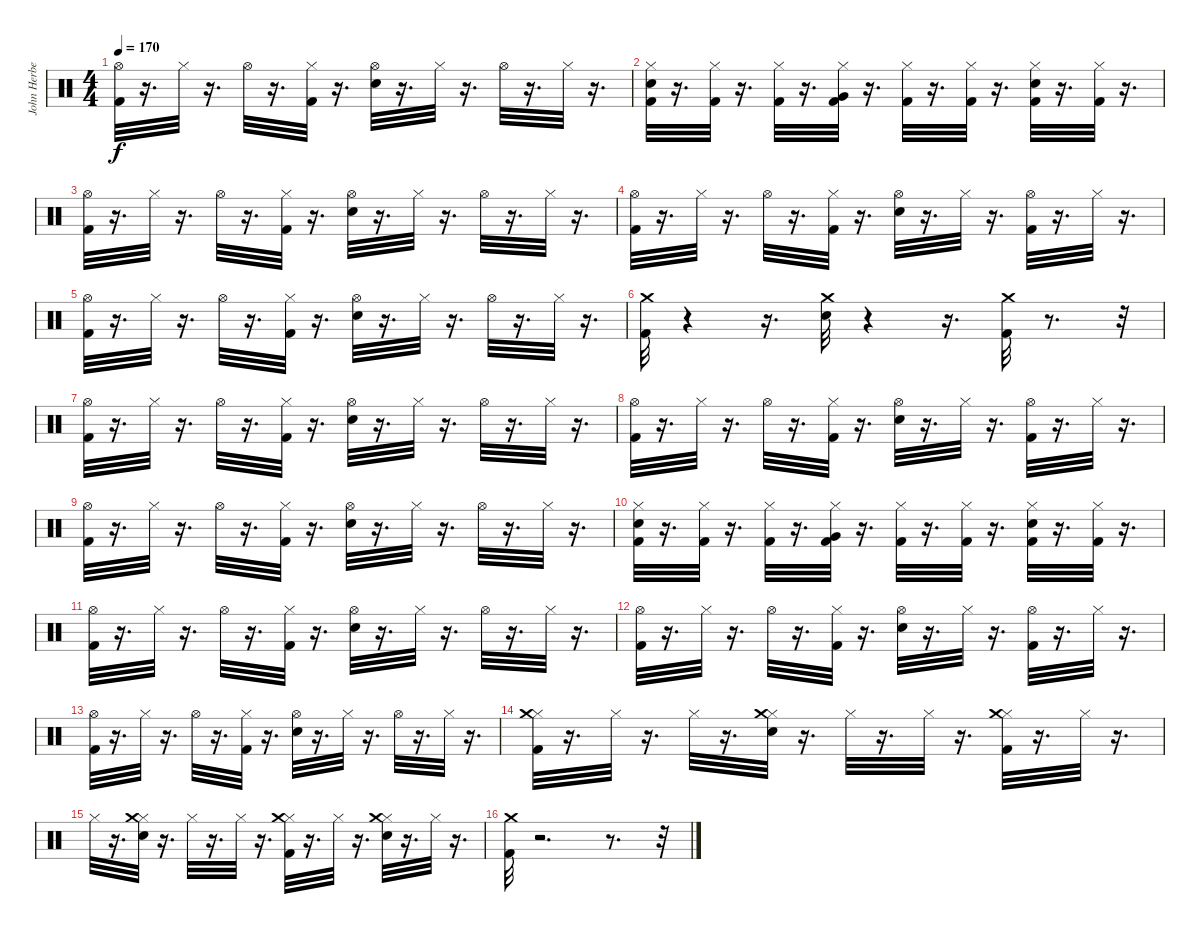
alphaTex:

\track ("John Herbert" "John Herbe") {instrument percussion}
\staff {score}
\articulation defaults
\ts (4 4)
\tempo 170
\clef neutral
\ks c
("Kick (hit) 2" "Hi-Hat (open)").32{dy f} r.16{d} "Hi-Hat (closed)".32 r.16{d} "Hi-Hat (open)".32 r.16{d} ("Kick (hit) 2" "Hi-Hat (closed)").32 r.16{d} ("Snare (hit) 2" "Hi-Hat (open)").32 r.16{d} "Hi-Hat (closed)".32 r.16{d} "Hi-Hat (open)".32 r.16{d} "Hi-Hat (closed)".32 r.16{d} |
("Snare (hit) 2" "Hi-Hat (closed)" "Kick (hit) 2").32 r.16{d} ("Hi-Hat (closed)" "Kick (hit) 2").32 r.16{d} ("Hi-Hat (closed)" "Kick (hit) 2").32 r.16{d} ("Very Low Tom (hit)" "Hi-Hat (closed)" "Kick (hit) 2").32 r.16{d} ("Hi-Hat (closed)" "Kick (hit) 2").32 r.16{d} ("Hi-Hat (closed)" "Kick (hit) 2").32 r.16{d} ("Snare (hit) 2" "Hi-Hat (closed)" "Kick (hit) 2").32 r.16{d} ("Hi-Hat (closed)" "Kick (hit) 2").32 r.16{d} |
("Kick (hit) 2" "Hi-Hat (open)").32 r.16{d} "Hi-Hat (closed)".32 r.16{d} "Hi-Hat (open)".32 r.16{d} ("Kick (hit) 2" "Hi-Hat (closed)").32 r.16{d} ("Snare (hit) 2" "Hi-Hat (open)").32 r.16{d} "Hi-Hat (closed)".32 r.16{d} "Hi-Hat (open)".32 r.16{d} "Hi-Hat (closed)".32 r.16{d} |
("Hi-Hat (open)" "Kick (hit) 2").32 r.16{d} "Hi-Hat (closed)".32 r.16{d} "Hi-Hat (open)".32 r.16{d} ("Hi-Hat (closed)" "Kick (hit) 2").32 r.16{d} ("Snare (hit) 2" "Hi-Hat (open)").32 r.16{d} "Hi-Hat (closed)".32 r.16{d} ("Kick (hit) 2" "Hi-Hat (open)").32 r.16{d} "Hi-Hat (closed)".32 r.16{d} |
("Kick (hit) 2" "Hi-Hat (open)").32 r.16{d} "Hi-Hat (closed)".32 r.16{d} "Hi-Hat (open)".32 r.16{d} ("Kick (hit) 2" "Hi-Hat (closed)").32 r.16{d} ("Snare (hit) 2" "Hi-Hat (open)").32 r.16{d} "Hi-Hat (closed)".32 r.16{d} "Hi-Hat (open)".32 r.16{d} "Hi-Hat (closed)".32 r.16{d} |
("Kick (hit) 2" "Crash medium (hit)").32 r.4 r.16{d} ("Snare (hit) 2" "Crash medium (hit)").32 r.4 r.16{d} ("Kick (hit) 2" "Crash medium (hit)").32 r.8{d} r.32 |
("Kick (hit) 2" "Hi-Hat (open)").32 r.16{d} "Hi-Hat (closed)".32 r.16{d} "Hi-Hat (open)".32 r.16{d} ("Kick (hit) 2" "Hi-Hat (closed)").32 r.16{d} ("Snare (hit) 2" "Hi-Hat (open)").32 r.16{d} "Hi-Hat (closed)".32 r.16{d} "Hi-Hat (open)".32 r.16{d} "Hi-Hat (closed)".32 r.16{d} |
("Hi-Hat (open)" "Kick (hit) 2").32 r.16{d} "Hi-Hat (closed)".32 r.16{d} "Hi-Hat (open)".32 r.16{d} ("Hi-Hat (closed)" "Kick (hit) 2").32 r.16{d} ("Snare (hit) 2" "Hi-Hat (open)").32 r.16{d} "Hi-Hat (closed)".32 r.16{d} ("Kick (hit) 2" "Hi-Hat (open)").32 r.16{d} "Hi-Hat (closed)".32 r.16{d} |
("Kick (hit) 2" "Hi-Hat (open)").32 r.16{d} "Hi-Hat (closed)".32 r.16{d} "Hi-Hat (open)".32 r.16{d} ("Kick (hit) 2" "Hi-Hat (closed)").32 r.16{d} ("Snare (hit) 2" "Hi-Hat (open)").32 r.16{d} "Hi-Hat (closed)".32 r.16{d} "Hi-Hat (open)".32 r.16{d} "Hi-Hat (closed)".32 r.16{d} |
("Snare (hit) 2" "Hi-Hat (closed)" "Kick (hit) 2").32 r.16{d} ("Hi-Hat (closed)" "Kick (hit) 2").32 r.16{d} ("Hi-Hat (closed)" "Kick (hit) 2").32 r.16{d} ("Very Low Tom (hit)" "Hi-Hat (closed)" "Kick (hit) 2").32 r.16{d} ("Hi-Hat (closed)" "Kick (hit) 2").32 r.16{d} ("Hi-Hat (closed)" "Kick (hit) 2").32 r.16{d} ("Snare (hit) 2" "Hi-Hat (closed)" "Kick (hit) 2").32 r.16{d} ("Hi-Hat (closed)" "Kick (hit) 2").32 r.16{d} |
("Kick (hit) 2" "Hi-Hat (open)").32 r.16{d} "Hi-Hat (closed)".32 r.16{d} "Hi-Hat (open)".32 r.16{d} ("Kick (hit) 2" "Hi-Hat (closed)").32 r.16{d} ("Snare (hit) 2" "Hi-Hat (open)").32 r.16{d} "Hi-Hat (closed)".32 r.16{d} "Hi-Hat (open)".32 r.16{d} "Hi-Hat (closed)".32 r.16{d} |
("Hi-Hat (open)" "Kick (hit) 2").32 r.16{d} "Hi-Hat (closed)".32 r.16{d} "Hi-Hat (open)".32 r.16{d} ("Hi-Hat (closed)" "Kick (hit) 2").32 r.16{d} ("Snare (hit) 2" "Hi-Hat (open)").32 r.16{d} "Hi-Hat (closed)".32 r.16{d} ("Kick (hit) 2" "Hi-Hat (open)").32 r.16{d} "Hi-Hat (closed)".32 r.16{d} |
("Kick (hit) 2" "Hi-Hat (open)").32 r.16{d} "Hi-Hat (closed)".32 r.16{d} "Hi-Hat (open)".32 r.16{d} ("Kick (hit) 2" "Hi-Hat (closed)").32 r.16{d} ("Snare (hit) 2" "Hi-Hat (open)").32 r.16{d} "Hi-Hat (closed)".32 r.16{d} "Hi-Hat (open)".32 r.16{d} "Hi-Hat (closed)".32 r.16{d} |
("Hi-Hat (closed)" "Kick (hit) 2" "Crash medium (hit)").32 r.16{d} "Hi-Hat (closed)".32 r.16{d} "Hi-Hat (closed)".32 r.16{d} ("Hi-Hat (closed)" "Snare (hit) 2" "Crash medium (hit)").32 r.16{d} "Hi-Hat (closed)".32 r.16{d} "Hi-Hat (closed)".32 r.16{d} ("Hi-Hat (closed)" "Kick (hit) 2" "Crash medium (hit)").32 r.16{d} "Hi-Hat (closed)".32 r.16{d} |
"Hi-Hat (closed)".32 r.16{d} ("Hi-Hat (closed)" "Crash medium (hit)" "Snare (hit) 2").32 r.16{d} "Hi-Hat (closed)".32 r.16{d} "Hi-Hat (closed)".32 r.16{d} ("Hi-Hat (closed)" "Crash medium (hit)" "Kick (hit) 2").32 r.16{d} "Hi-Hat (closed)".32 r.16{d} ("Hi-Hat (closed)" "Snare (hit) 2" "Crash medium (hit)").32 r.16{d} "Hi-Hat (closed)".32 r.16{d} |
("Kick (hit) 2" "Crash medium (hit)").32 r.2{d} r.8{d} r.32
